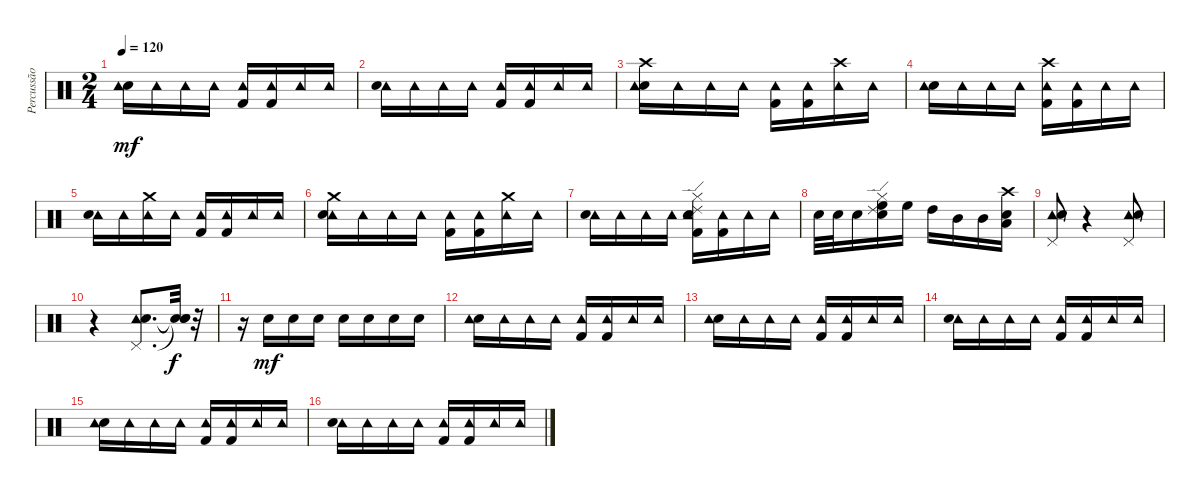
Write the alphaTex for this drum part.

\track ("Percussão" "Percussão") {instrument percussion}
\staff {score}
\articulation defaults
\ts (2 4)
\tempo 120
\clef neutral
\ks c
("Snare (hit) 2" "Tambourine (hit)").16{dy mf} "Tambourine (hit)".16 "Tambourine (hit)".16 "Tambourine (hit)".16 ("Tambourine (hit)" "Kick (hit) 2").16 ("Kick (hit) 2" "Tambourine (hit)").16 "Tambourine (hit)".16 "Tambourine (hit)".16 |
("Tambourine (hit)" "Snare (hit) 2").16 "Tambourine (hit)".16 "Tambourine (hit)".16 "Tambourine (hit)".16 ("Kick (hit) 2" "Tambourine (hit)").16 ("Tambourine (hit)" "Kick (hit) 2").16 "Tambourine (hit)".16 "Tambourine (hit)".16 |
("Crash high (hit)" "Snare (hit) 2" "Tambourine (hit)").16 "Tambourine (hit)".16 "Tambourine (hit)".16 "Tambourine (hit)".16 ("Tambourine (hit)" "Kick (hit) 2").16 ("Tambourine (hit)" "Kick (hit) 2").16 ("Crash high (hit)" "Tambourine (hit)").16 "Tambourine (hit)".16 |
("Snare (hit) 2" "Tambourine (hit)").16 "Tambourine (hit)".16 "Tambourine (hit)".16 "Tambourine (hit)".16 ("Crash high (hit)" "Tambourine (hit)" "Kick (hit) 2").16 ("Kick (hit) 2" "Tambourine (hit)").16 "Tambourine (hit)".16 "Tambourine (hit)".16 |
("Tambourine (hit)" "Snare (hit) 2").16 "Tambourine (hit)".16 ("Crash medium (hit)" "Tambourine (hit)").16 "Tambourine (hit)".16 ("Kick (hit) 2" "Tambourine (hit)").16 ("Tambourine (hit)" "Kick (hit) 2").16 "Tambourine (hit)".16 "Tambourine (hit)".16 |
("Crash medium (hit)" "Tambourine (hit)" "Snare (hit) 2").16 "Tambourine (hit)".16 "Tambourine (hit)".16 "Tambourine (hit)".16 ("Kick (hit) 2" "Tambourine (hit)").16 ("Tambourine (hit)" "Kick (hit) 2").16 ("Crash medium (hit)" "Tambourine (hit)").16 "Tambourine (hit)".16 |
("Tambourine (hit)" "Snare (hit) 2").16 "Tambourine (hit)".16 "Tambourine (hit)".16 "Tambourine (hit)".16 ("Snare (hit) 2" "Ride (edge) 2" "Hi-Hat (closed)" "Kick (hit) 2" "Tambourine (hit)").16 ("Tambourine (hit)" "Kick (hit) 2").16 "Tambourine (hit)".16 "Tambourine (hit)".16 |
"Snare (hit) 2".32 "Snare (hit) 2".32 "Snare (hit) 2".16 ("Ride (edge) 2" "Hi-Hat (closed)" "Snare (hit) 2" "High Floor Tom (hit)").16 "High Floor Tom (hit)".16 "High Tom (hit)".16 "Mid Tom (hit)".16 "Mid Tom (hit)".16 ("Crash high (hit)" "Low Floor Tom (hit)" "Snare (hit) 2").16 |
("Pedal Hi-Hat (hit)" "Tambourine (hit)" "Snare (hit) 2").8 r.4 ("Pedal Hi-Hat (hit)" "Tambourine (hit)" "Snare (hit) 2").8 |
r.4 ("Pedal Hi-Hat (hit)" "Tambourine (hit)" "Snare (hit) 2").8{d} ("Snare (hit)"{t} "Snare (hit)"{t} "Snare (hit)"{t}).32{dy f} r.32 |
r.16 "Snare (hit) 2".16{dy mf} "Snare (hit) 2".16 "Snare (hit) 2".16 "Snare (hit) 2".16 "Snare (hit) 2".16 "Snare (hit) 2".16 "Snare (hit) 2".16 |
("Snare (hit) 2" "Tambourine (hit)").16 "Tambourine (hit)".16 "Tambourine (hit)".16 "Tambourine (hit)".16 ("Kick (hit) 2" "Tambourine (hit)").16 ("Tambourine (hit)" "Kick (hit) 2").16 "Tambourine (hit)".16 "Tambourine (hit)".16 |
("Snare (hit) 2" "Tambourine (hit)").16 "Tambourine (hit)".16 "Tambourine (hit)".16 "Tambourine (hit)".16 ("Tambourine (hit)" "Kick (hit) 2").16 ("Kick (hit) 2" "Tambourine (hit)").16 "Tambourine (hit)".16 "Tambourine (hit)".16 |
("Tambourine (hit)" "Snare (hit) 2").16 "Tambourine (hit)".16 "Tambourine (hit)".16 "Tambourine (hit)".16 ("Kick (hit) 2" "Tambourine (hit)").16 ("Kick (hit) 2" "Tambourine (hit)").16 "Tambourine (hit)".16 "Tambourine (hit)".16 |
("Snare (hit) 2" "Tambourine (hit)").16 "Tambourine (hit)".16 "Tambourine (hit)".16 "Tambourine (hit)".16 ("Kick (hit) 2" "Tambourine (hit)").16 ("Kick (hit) 2" "Tambourine (hit)").16 "Tambourine (hit)".16 "Tambourine (hit)".16 |
("Tambourine (hit)" "Snare (hit) 2").16 "Tambourine (hit)".16 "Tambourine (hit)".16 "Tambourine (hit)".16 ("Kick (hit) 2" "Tambourine (hit)").16 ("Tambourine (hit)" "Kick (hit) 2").16 "Tambourine (hit)".16 "Tambourine (hit)".16
